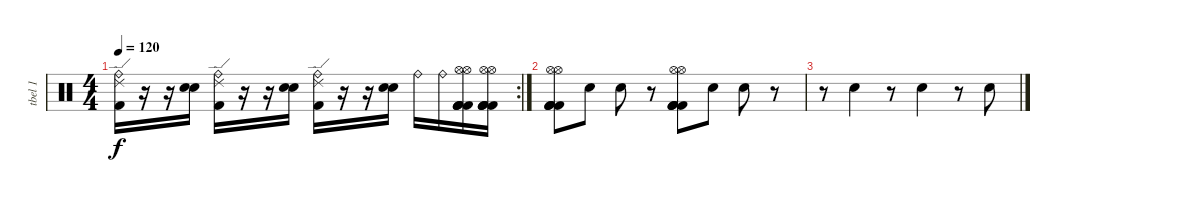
\track ("tbel 1" "tbel 1") {instrument percussion}
\staff {score}
\articulation defaults
\rc 2
\ts (4 4)
\tempo 120
\clef neutral
\ks c
("Ride (bell)" "Kick (hit) 2" "Ride (edge) 2").16{dy f} r.16 r.16 ("Electric Snare (hit)" "Snare (hit) 2").16 ("Ride (bell)" "Kick (hit) 2" "Ride (edge) 2").16 r.16 r.16 ("Electric Snare (hit)" "Snare (hit) 2").16 ("Ride (bell)" "Kick (hit) 2" "Ride (edge) 2").16 r.16 r.16 ("Electric Snare (hit)" "Snare (hit) 2").16 "Ride (bell)".16 "Ride (bell)".16 ("Hi-Hat (open)" "Kick (hit) 2" "Kick (hit) 2" "Kick (hit) 2" "Kick (hit) 2" "Hi-Hat (open)").16 ("Hi-Hat (open)" "Kick (hit) 2" "Kick (hit) 2" "Kick (hit) 2" "Kick (hit) 2" "Hi-Hat (open)").16 |
("Hi-Hat (open)" "Kick (hit) 2" "Kick (hit) 2" "Kick (hit) 2" "Kick (hit) 2" "Hi-Hat (open)").8 "Electric Snare (hit)".8 "Electric Snare (hit)".8 r.8 ("Hi-Hat (open)" "Kick (hit) 2" "Kick (hit) 2" "Kick (hit) 2" "Kick (hit) 2" "Hi-Hat (open)").8 "Electric Snare (hit)".8 "Electric Snare (hit)".8 r.8 |
r.8 "Electric Snare (hit)".4 r.8 "Electric Snare (hit)".4 r.8 "Electric Snare (hit)".8
